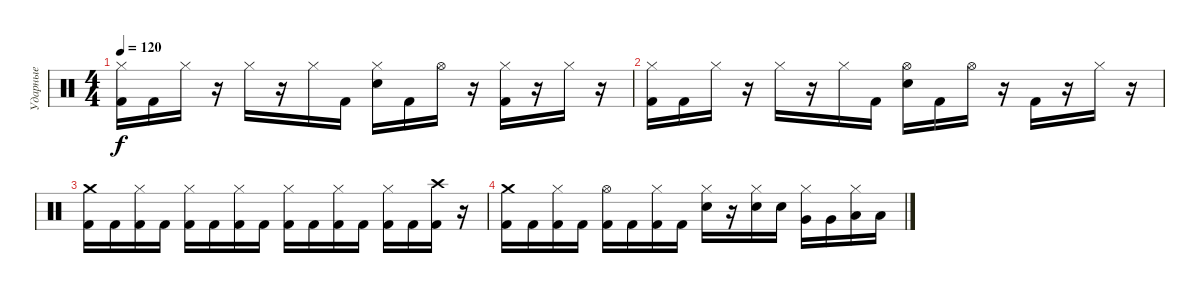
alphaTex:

\track ("Ударные" "Ударные") {instrument percussion}
\staff {score}
\articulation defaults
\ts (4 4)
\tempo 120
\clef neutral
\ks c
("Hi-Hat (closed)" "Kick (hit) 2").16{dy f} "Kick (hit) 2".16 "Hi-Hat (closed)".16 r.16 "Hi-Hat (closed)".16 r.16 "Hi-Hat (closed)".16 "Kick (hit) 2".16 ("Hi-Hat (closed)" "Electric Snare (hit)").16 "Kick (hit) 2".16 "Hi-Hat (open)".16 r.16 ("Hi-Hat (closed)" "Kick (hit) 2").16 r.16 "Hi-Hat (closed)".16 r.16 |
("Hi-Hat (closed)" "Kick (hit) 2").16 "Kick (hit) 2".16 "Hi-Hat (closed)".16 r.16 "Hi-Hat (closed)".16 r.16 "Hi-Hat (closed)".16 "Kick (hit) 2".16 ("Hi-Hat (open)" "Electric Snare (hit)").16 "Kick (hit) 2".16 "Hi-Hat (open)".16 r.16 "Kick (hit) 2".16 r.16 "Hi-Hat (closed)".16 r.16 |
("Crash medium (hit)" "Kick (hit) 2").16 "Kick (hit) 2".16 ("Hi-Hat (closed)" "Kick (hit) 2").16 "Kick (hit) 2".16 ("Hi-Hat (closed)" "Kick (hit) 2").16 "Kick (hit) 2".16 ("Hi-Hat (closed)" "Kick (hit) 2").16 "Kick (hit) 2".16 ("Hi-Hat (closed)" "Kick (hit) 2").16 "Kick (hit) 2".16 ("Hi-Hat (closed)" "Kick (hit) 2").16 "Kick (hit) 2".16 ("Hi-Hat (closed)" "Kick (hit) 2").16 "Kick (hit) 2".16 ("Crash high (hit)" "Kick (hit) 2").16 r.16 |
("Crash medium (hit)" "Kick (hit) 2").16 "Kick (hit) 2".16 ("Hi-Hat (closed)" "Kick (hit) 2").16 "Kick (hit) 2".16 ("Hi-Hat (open)" "Kick (hit) 2").16 "Kick (hit) 2".16 ("Hi-Hat (closed)" "Kick (hit) 2").16 "Kick (hit) 2".16 ("Hi-Hat (closed)" "Electric Snare (hit)").16 r.16 ("Hi-Hat (closed)" "Electric Snare (hit)").16 "Electric Snare (hit)".16 ("Hi-Hat (closed)" "Very Low Tom (hit)").16 "Very Low Tom (hit)".16 ("Hi-Hat (closed)" "Low Tom (hit)").16 "Low Tom (hit)".16
